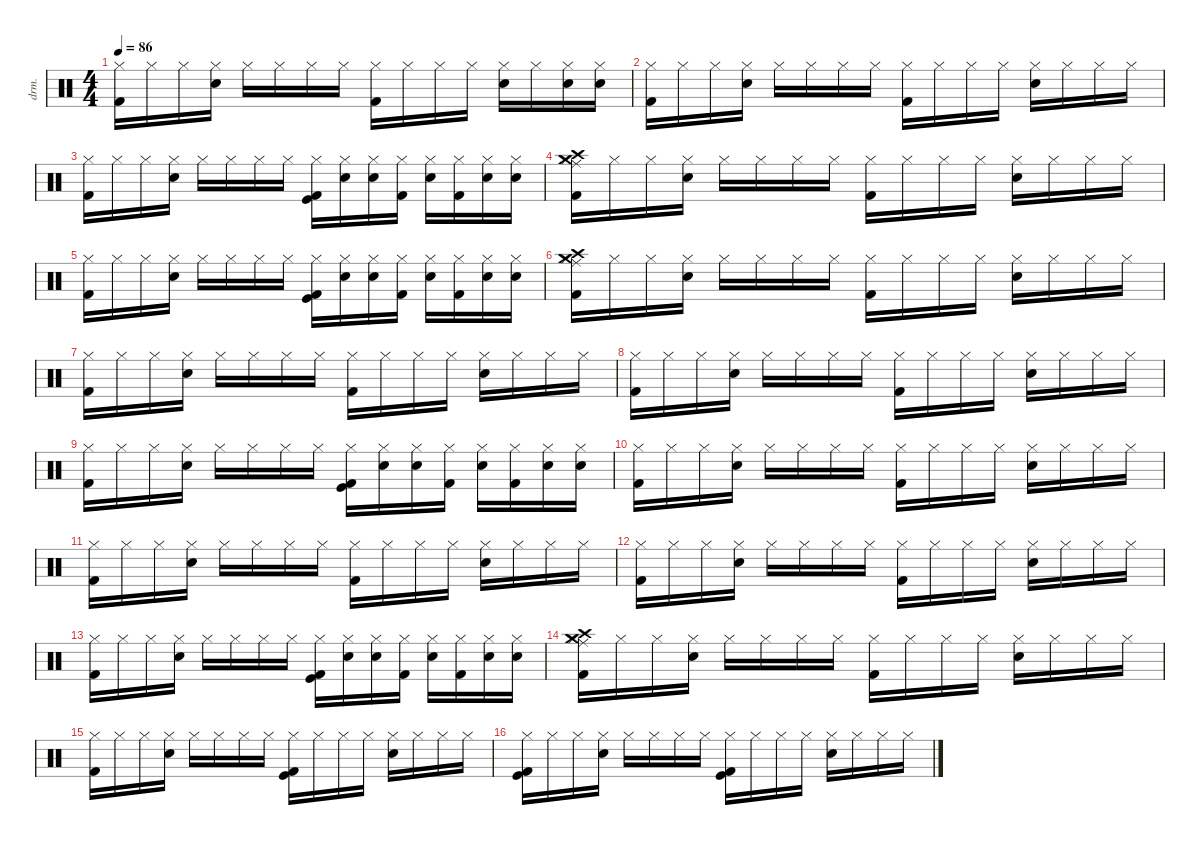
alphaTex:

\defaultSystemsLayout 4
\hideDynamics
\bracketExtendMode nobrackets
\otherSystemsTrackNameOrientation horizontal
\track ("Drums" "drm.") {instrument percussion}
\staff {score}
\articulation defaults
\ts (4 4)
\tempo 86
\clef neutral
\ks c
("Hi-Hat (closed)" "Kick (hit) 2").16{dy mf beam Down} "Hi-Hat (closed)".16{beam Down} "Hi-Hat (closed)".16{beam Down} ("Hi-Hat (closed)" "Snare (hit) 2").16{beam Down} "Hi-Hat (closed)".16{beam Down} "Hi-Hat (closed)".16{beam Down} "Hi-Hat (closed)".16{beam Down} "Hi-Hat (closed)".16{beam Down} ("Hi-Hat (closed)" "Kick (hit) 2").16{beam Down} "Hi-Hat (closed)".16{beam Down} "Hi-Hat (closed)".16{beam Down} "Hi-Hat (closed)".16{beam Down} ("Hi-Hat (closed)" "Snare (hit) 2").16{beam Down} "Hi-Hat (closed)".16{beam Down} ("Hi-Hat (closed)" "Snare (hit) 2").16{beam Down} ("Hi-Hat (closed)" "Snare (hit) 2").16{beam Down} |
("Hi-Hat (closed)" "Kick (hit) 2").16{beam Down} "Hi-Hat (closed)".16{beam Down} "Hi-Hat (closed)".16{beam Down} ("Hi-Hat (closed)" "Snare (hit) 2").16{beam Down} "Hi-Hat (closed)".16{beam Down} "Hi-Hat (closed)".16{beam Down} "Hi-Hat (closed)".16{beam Down} "Hi-Hat (closed)".16{beam Down} ("Hi-Hat (closed)" "Kick (hit) 2").16{beam Down} "Hi-Hat (closed)".16{beam Down} "Hi-Hat (closed)".16{beam Down} "Hi-Hat (closed)".16{beam Down} ("Hi-Hat (closed)" "Snare (hit) 2").16{beam Down} "Hi-Hat (closed)".16{beam Down} "Hi-Hat (closed)".16{beam Down} "Hi-Hat (closed)".16{beam Down} |
("Hi-Hat (closed)" "Kick (hit) 2").16{beam Down} "Hi-Hat (closed)".16{beam Down} "Hi-Hat (closed)".16{beam Down} ("Hi-Hat (closed)" "Snare (hit) 2").16{beam Down} "Hi-Hat (closed)".16{beam Down} "Hi-Hat (closed)".16{beam Down} "Hi-Hat (closed)".16{beam Down} "Hi-Hat (closed)".16{beam Down} ("Hi-Hat (closed)" "Kick (hit)" "Kick (hit) 2").16{beam Down} ("Hi-Hat (closed)" "Snare (hit) 2").16{beam Down} ("Hi-Hat (closed)" "Snare (hit) 2").16{beam Down} ("Hi-Hat (closed)" "Kick (hit) 2").16{beam Down} ("Hi-Hat (closed)" "Snare (hit) 2").16{beam Down} ("Hi-Hat (closed)" "Kick (hit) 2").16{beam Down} ("Hi-Hat (closed)" "Snare (hit) 2").16{beam Down} ("Hi-Hat (closed)" "Snare (hit) 2").16{beam Down} |
("Hi-Hat (closed)" "Crash high (hit)" "Ride (middle)" "Crash medium (hit)" "Kick (hit) 2").16{beam Down} "Hi-Hat (closed)".16{beam Down} "Hi-Hat (closed)".16{beam Down} ("Hi-Hat (closed)" "Snare (hit) 2").16{beam Down} "Hi-Hat (closed)".16{beam Down} "Hi-Hat (closed)".16{beam Down} "Hi-Hat (closed)".16{beam Down} "Hi-Hat (closed)".16{beam Down} ("Hi-Hat (closed)" "Kick (hit) 2").16{beam Down} "Hi-Hat (closed)".16{beam Down} "Hi-Hat (closed)".16{beam Down} "Hi-Hat (closed)".16{beam Down} ("Hi-Hat (closed)" "Snare (hit) 2").16{beam Down} "Hi-Hat (closed)".16{beam Down} "Hi-Hat (closed)".16{beam Down} "Hi-Hat (closed)".16{beam Down} |
("Hi-Hat (closed)" "Kick (hit) 2").16{beam Down} "Hi-Hat (closed)".16{beam Down} "Hi-Hat (closed)".16{beam Down} ("Hi-Hat (closed)" "Snare (hit) 2").16{beam Down} "Hi-Hat (closed)".16{beam Down} "Hi-Hat (closed)".16{beam Down} "Hi-Hat (closed)".16{beam Down} "Hi-Hat (closed)".16{beam Down} ("Hi-Hat (closed)" "Kick (hit)" "Kick (hit) 2").16{beam Down} ("Hi-Hat (closed)" "Snare (hit) 2").16{beam Down} ("Hi-Hat (closed)" "Snare (hit) 2").16{beam Down} ("Hi-Hat (closed)" "Kick (hit) 2").16{beam Down} ("Hi-Hat (closed)" "Snare (hit) 2").16{beam Down} ("Hi-Hat (closed)" "Kick (hit) 2").16{beam Down} ("Hi-Hat (closed)" "Snare (hit) 2").16{beam Down} ("Hi-Hat (closed)" "Snare (hit) 2").16{beam Down} |
("Hi-Hat (closed)" "Crash high (hit)" "Ride (middle)" "Crash medium (hit)" "Kick (hit) 2").16{beam Down} "Hi-Hat (closed)".16{beam Down} "Hi-Hat (closed)".16{beam Down} ("Hi-Hat (closed)" "Snare (hit) 2").16{beam Down} "Hi-Hat (closed)".16{beam Down} "Hi-Hat (closed)".16{beam Down} "Hi-Hat (closed)".16{beam Down} "Hi-Hat (closed)".16{beam Down} ("Hi-Hat (closed)" "Kick (hit) 2").16{beam Down} "Hi-Hat (closed)".16{beam Down} "Hi-Hat (closed)".16{beam Down} "Hi-Hat (closed)".16{beam Down} ("Hi-Hat (closed)" "Snare (hit) 2").16{beam Down} "Hi-Hat (closed)".16{beam Down} "Hi-Hat (closed)".16{beam Down} "Hi-Hat (closed)".16{beam Down} |
("Hi-Hat (closed)" "Kick (hit) 2").16{beam Down} "Hi-Hat (closed)".16{beam Down} "Hi-Hat (closed)".16{beam Down} ("Hi-Hat (closed)" "Snare (hit) 2").16{beam Down} "Hi-Hat (closed)".16{beam Down} "Hi-Hat (closed)".16{beam Down} "Hi-Hat (closed)".16{beam Down} "Hi-Hat (closed)".16{beam Down} ("Hi-Hat (closed)" "Kick (hit) 2").16{beam Down} "Hi-Hat (closed)".16{beam Down} "Hi-Hat (closed)".16{beam Down} "Hi-Hat (closed)".16{beam Down} ("Hi-Hat (closed)" "Snare (hit) 2").16{beam Down} "Hi-Hat (closed)".16{beam Down} "Hi-Hat (closed)".16{beam Down} "Hi-Hat (closed)".16{beam Down} |
("Hi-Hat (closed)" "Kick (hit) 2").16{beam Down} "Hi-Hat (closed)".16{beam Down} "Hi-Hat (closed)".16{beam Down} ("Hi-Hat (closed)" "Snare (hit) 2").16{beam Down} "Hi-Hat (closed)".16{beam Down} "Hi-Hat (closed)".16{beam Down} "Hi-Hat (closed)".16{beam Down} "Hi-Hat (closed)".16{beam Down} ("Hi-Hat (closed)" "Kick (hit) 2").16{beam Down} "Hi-Hat (closed)".16{beam Down} "Hi-Hat (closed)".16{beam Down} "Hi-Hat (closed)".16{beam Down} ("Hi-Hat (closed)" "Snare (hit) 2").16{beam Down} "Hi-Hat (closed)".16{beam Down} "Hi-Hat (closed)".16{beam Down} "Hi-Hat (closed)".16{beam Down} |
("Hi-Hat (closed)" "Kick (hit) 2").16{beam Down} "Hi-Hat (closed)".16{beam Down} "Hi-Hat (closed)".16{beam Down} ("Hi-Hat (closed)" "Snare (hit) 2").16{beam Down} "Hi-Hat (closed)".16{beam Down} "Hi-Hat (closed)".16{beam Down} "Hi-Hat (closed)".16{beam Down} "Hi-Hat (closed)".16{beam Down} ("Hi-Hat (closed)" "Kick (hit)" "Kick (hit) 2").16{beam Down} ("Hi-Hat (closed)" "Snare (hit) 2").16{beam Down} ("Hi-Hat (closed)" "Snare (hit) 2").16{beam Down} ("Hi-Hat (closed)" "Kick (hit) 2").16{beam Down} ("Hi-Hat (closed)" "Snare (hit) 2").16{beam Down} ("Hi-Hat (closed)" "Kick (hit) 2").16{beam Down} ("Hi-Hat (closed)" "Snare (hit) 2").16{beam Down} ("Hi-Hat (closed)" "Snare (hit) 2").16{beam Down} |
("Hi-Hat (closed)" "Kick (hit) 2").16{beam Down} "Hi-Hat (closed)".16{beam Down} "Hi-Hat (closed)".16{beam Down} ("Hi-Hat (closed)" "Snare (hit) 2").16{beam Down} "Hi-Hat (closed)".16{beam Down} "Hi-Hat (closed)".16{beam Down} "Hi-Hat (closed)".16{beam Down} "Hi-Hat (closed)".16{beam Down} ("Hi-Hat (closed)" "Kick (hit) 2").16{beam Down} "Hi-Hat (closed)".16{beam Down} "Hi-Hat (closed)".16{beam Down} "Hi-Hat (closed)".16{beam Down} ("Hi-Hat (closed)" "Snare (hit) 2").16{beam Down} "Hi-Hat (closed)".16{beam Down} "Hi-Hat (closed)".16{beam Down} "Hi-Hat (closed)".16{beam Down} |
("Hi-Hat (closed)" "Kick (hit) 2").16{beam Down} "Hi-Hat (closed)".16{beam Down} "Hi-Hat (closed)".16{beam Down} ("Hi-Hat (closed)" "Snare (hit) 2").16{beam Down} "Hi-Hat (closed)".16{beam Down} "Hi-Hat (closed)".16{beam Down} "Hi-Hat (closed)".16{beam Down} "Hi-Hat (closed)".16{beam Down} ("Hi-Hat (closed)" "Kick (hit) 2").16{beam Down} "Hi-Hat (closed)".16{beam Down} "Hi-Hat (closed)".16{beam Down} "Hi-Hat (closed)".16{beam Down} ("Hi-Hat (closed)" "Snare (hit) 2").16{beam Down} "Hi-Hat (closed)".16{beam Down} "Hi-Hat (closed)".16{beam Down} "Hi-Hat (closed)".16{beam Down} |
("Hi-Hat (closed)" "Kick (hit) 2").16{beam Down} "Hi-Hat (closed)".16{beam Down} "Hi-Hat (closed)".16{beam Down} ("Hi-Hat (closed)" "Snare (hit) 2").16{beam Down} "Hi-Hat (closed)".16{beam Down} "Hi-Hat (closed)".16{beam Down} "Hi-Hat (closed)".16{beam Down} "Hi-Hat (closed)".16{beam Down} ("Hi-Hat (closed)" "Kick (hit) 2").16{beam Down} "Hi-Hat (closed)".16{beam Down} "Hi-Hat (closed)".16{beam Down} "Hi-Hat (closed)".16{beam Down} ("Hi-Hat (closed)" "Snare (hit) 2").16{beam Down} "Hi-Hat (closed)".16{beam Down} "Hi-Hat (closed)".16{beam Down} "Hi-Hat (closed)".16{beam Down} |
("Hi-Hat (closed)" "Kick (hit) 2").16{beam Down} "Hi-Hat (closed)".16{beam Down} "Hi-Hat (closed)".16{beam Down} ("Hi-Hat (closed)" "Snare (hit) 2").16{beam Down} "Hi-Hat (closed)".16{beam Down} "Hi-Hat (closed)".16{beam Down} "Hi-Hat (closed)".16{beam Down} "Hi-Hat (closed)".16{beam Down} ("Hi-Hat (closed)" "Kick (hit)" "Kick (hit) 2").16{beam Down} ("Hi-Hat (closed)" "Snare (hit) 2").16{beam Down} ("Hi-Hat (closed)" "Snare (hit) 2").16{beam Down} ("Hi-Hat (closed)" "Kick (hit) 2").16{beam Down} ("Hi-Hat (closed)" "Snare (hit) 2").16{beam Down} ("Hi-Hat (closed)" "Kick (hit) 2").16{beam Down} ("Hi-Hat (closed)" "Snare (hit) 2").16{beam Down} ("Hi-Hat (closed)" "Snare (hit) 2").16{beam Down} |
("Hi-Hat (closed)" "Crash high (hit)" "Ride (middle)" "Crash medium (hit)" "Kick (hit) 2").16{beam Down} "Hi-Hat (closed)".16{beam Down} "Hi-Hat (closed)".16{beam Down} ("Hi-Hat (closed)" "Snare (hit) 2").16{beam Down} "Hi-Hat (closed)".16{beam Down} "Hi-Hat (closed)".16{beam Down} "Hi-Hat (closed)".16{beam Down} "Hi-Hat (closed)".16{beam Down} ("Hi-Hat (closed)" "Kick (hit) 2").16{beam Down} "Hi-Hat (closed)".16{beam Down} "Hi-Hat (closed)".16{beam Down} "Hi-Hat (closed)".16{beam Down} ("Hi-Hat (closed)" "Snare (hit) 2").16{beam Down} "Hi-Hat (closed)".16{beam Down} "Hi-Hat (closed)".16{beam Down} "Hi-Hat (closed)".16{beam Down} |
("Hi-Hat (closed)" "Kick (hit) 2").16{beam Down} "Hi-Hat (closed)".16{beam Down} "Hi-Hat (closed)".16{beam Down} ("Hi-Hat (closed)" "Snare (hit) 2").16{beam Down} "Hi-Hat (closed)".16{beam Down} "Hi-Hat (closed)".16{beam Down} "Hi-Hat (closed)".16{beam Down} "Hi-Hat (closed)".16{beam Down} ("Hi-Hat (closed)" "Kick (hit)" "Kick (hit) 2").16{beam Down} "Hi-Hat (closed)".16{beam Down} "Hi-Hat (closed)".16{beam Down} "Hi-Hat (closed)".16{beam Down} ("Hi-Hat (closed)" "Snare (hit) 2").16{beam Down} "Hi-Hat (closed)".16{beam Down} "Hi-Hat (closed)".16{beam Down} "Hi-Hat (closed)".16{beam Down} |
("Hi-Hat (closed)" "Kick (hit)" "Kick (hit) 2").16{beam Down} "Hi-Hat (closed)".16{beam Down} "Hi-Hat (closed)".16{beam Down} ("Hi-Hat (closed)" "Snare (hit) 2").16{beam Down} "Hi-Hat (closed)".16{beam Down} "Hi-Hat (closed)".16{beam Down} "Hi-Hat (closed)".16{beam Down} "Hi-Hat (closed)".16{beam Down} ("Hi-Hat (closed)" "Kick (hit)" "Kick (hit) 2").16{beam Down} "Hi-Hat (closed)".16{beam Down} "Hi-Hat (closed)".16{beam Down} "Hi-Hat (closed)".16{beam Down} ("Hi-Hat (closed)" "Snare (hit) 2").16{beam Down} "Hi-Hat (closed)".16{beam Down} "Hi-Hat (closed)".16{beam Down} "Hi-Hat (closed)".16{beam Down}
